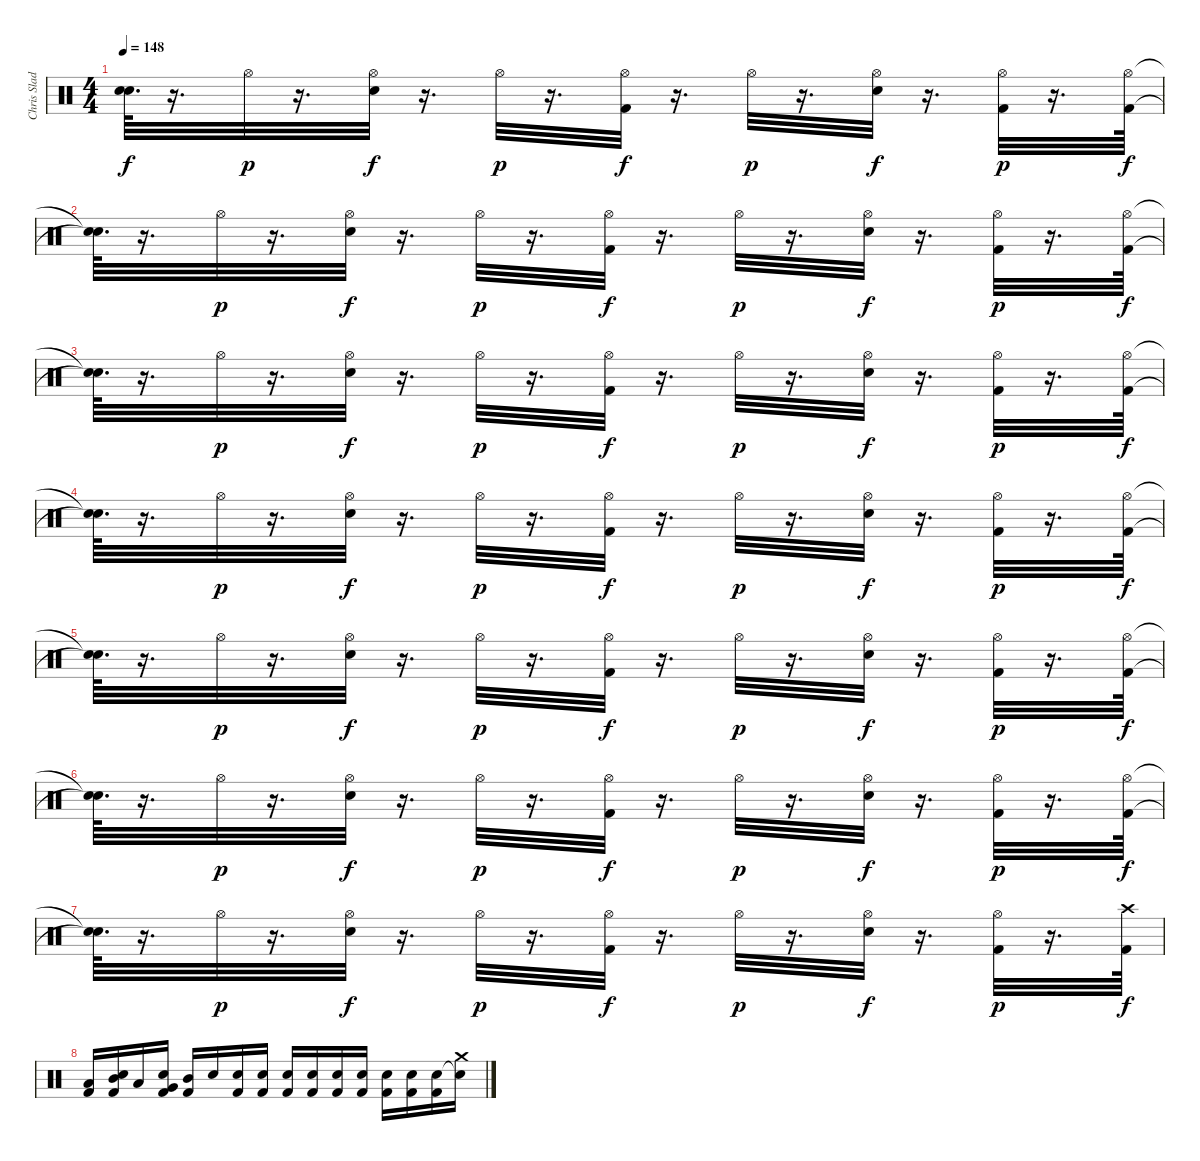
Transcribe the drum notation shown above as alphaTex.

\track ("Chris Slade" "Chris Slad") {instrument percussion}
\staff {score}
\articulation defaults
\ts (4 4)
\tempo 148
\clef neutral
\ks c
("Snare (hit)"{t} "Snare (hit)"{t}).64{d dy f} r.16{d} "Hi-Hat (open)".32{dy p} r.16{d} ("Hi-Hat (open)" "Electric Snare (hit)").32{dy f} r.16{d} "Hi-Hat (open)".32{dy p} r.16{d} ("Hi-Hat (open)" "Kick (hit) 2").32{dy f} r.16{d} "Hi-Hat (open)".32{dy p} r.16{d} ("Hi-Hat (open)" "Electric Snare (hit)").32{dy f} r.16{d} ("Hi-Hat (open)" "Kick (hit) 2").32{dy p} r.16{d} ("Hi-Hat (open)" "Kick (hit) 2").64{dy f} |
("Snare (hit)"{t} "Snare (hit)"{t}).64{d} r.16{d} "Hi-Hat (open)".32{dy p} r.16{d} ("Hi-Hat (open)" "Electric Snare (hit)").32{dy f} r.16{d} "Hi-Hat (open)".32{dy p} r.16{d} ("Hi-Hat (open)" "Kick (hit) 2").32{dy f} r.16{d} "Hi-Hat (open)".32{dy p} r.16{d} ("Hi-Hat (open)" "Electric Snare (hit)").32{dy f} r.16{d} ("Hi-Hat (open)" "Kick (hit) 2").32{dy p} r.16{d} ("Hi-Hat (open)" "Kick (hit) 2").64{dy f} |
("Snare (hit)"{t} "Snare (hit)"{t}).64{d} r.16{d} "Hi-Hat (open)".32{dy p} r.16{d} ("Hi-Hat (open)" "Electric Snare (hit)").32{dy f} r.16{d} "Hi-Hat (open)".32{dy p} r.16{d} ("Hi-Hat (open)" "Kick (hit) 2").32{dy f} r.16{d} "Hi-Hat (open)".32{dy p} r.16{d} ("Hi-Hat (open)" "Electric Snare (hit)").32{dy f} r.16{d} ("Hi-Hat (open)" "Kick (hit) 2").32{dy p} r.16{d} ("Hi-Hat (open)" "Kick (hit) 2").64{dy f} |
("Snare (hit)"{t} "Snare (hit)"{t}).64{d} r.16{d} "Hi-Hat (open)".32{dy p} r.16{d} ("Hi-Hat (open)" "Electric Snare (hit)").32{dy f} r.16{d} "Hi-Hat (open)".32{dy p} r.16{d} ("Hi-Hat (open)" "Kick (hit) 2").32{dy f} r.16{d} "Hi-Hat (open)".32{dy p} r.16{d} ("Hi-Hat (open)" "Electric Snare (hit)").32{dy f} r.16{d} ("Hi-Hat (open)" "Kick (hit) 2").32{dy p} r.16{d} ("Hi-Hat (open)" "Kick (hit) 2").64{dy f} |
("Snare (hit)"{t} "Snare (hit)"{t}).64{d} r.16{d} "Hi-Hat (open)".32{dy p} r.16{d} ("Hi-Hat (open)" "Electric Snare (hit)").32{dy f} r.16{d} "Hi-Hat (open)".32{dy p} r.16{d} ("Hi-Hat (open)" "Kick (hit) 2").32{dy f} r.16{d} "Hi-Hat (open)".32{dy p} r.16{d} ("Hi-Hat (open)" "Electric Snare (hit)").32{dy f} r.16{d} ("Hi-Hat (open)" "Kick (hit) 2").32{dy p} r.16{d} ("Hi-Hat (open)" "Kick (hit) 2").64{dy f} |
("Snare (hit)"{t} "Snare (hit)"{t}).64{d} r.16{d} "Hi-Hat (open)".32{dy p} r.16{d} ("Hi-Hat (open)" "Electric Snare (hit)").32{dy f} r.16{d} "Hi-Hat (open)".32{dy p} r.16{d} ("Hi-Hat (open)" "Kick (hit) 2").32{dy f} r.16{d} "Hi-Hat (open)".32{dy p} r.16{d} ("Hi-Hat (open)" "Electric Snare (hit)").32{dy f} r.16{d} ("Hi-Hat (open)" "Kick (hit) 2").32{dy p} r.16{d} ("Hi-Hat (open)" "Kick (hit) 2").64{dy f} |
("Snare (hit)"{t} "Snare (hit)"{t}).64{d} r.16{d} "Hi-Hat (open)".32{dy p} r.16{d} ("Hi-Hat (open)" "Electric Snare (hit)").32{dy f} r.16{d} "Hi-Hat (open)".32{dy p} r.16{d} ("Hi-Hat (open)" "Kick (hit) 2").32{dy f} r.16{d} "Hi-Hat (open)".32{dy p} r.16{d} ("Hi-Hat (open)" "Electric Snare (hit)").32{dy f} r.16{d} ("Hi-Hat (open)" "Kick (hit) 2").32{dy p} r.16{d} ("Crash high (hit)" "Kick (hit) 2").64{dy f} |
("Low Tom (hit)" "Kick (hit) 2").16 ("Electric Snare (hit)" "Mid Tom (hit)" "Kick (hit) 2").16 "Low Tom (hit)".16 ("Electric Snare (hit)" "Very Low Tom (hit)" "Kick (hit) 2").16 ("Mid Tom (hit)" "Kick (hit) 2").16 "Electric Snare (hit)".16 ("Electric Snare (hit)" "Kick (hit) 2").16 ("Electric Snare (hit)" "Kick (hit) 2").16 ("Electric Snare (hit)" "Kick (hit) 2").16 ("Electric Snare (hit)" "Kick (hit) 2").16 ("Electric Snare (hit)" "Kick (hit) 2").16 ("Electric Snare (hit)" "Kick (hit) 2").16 ("Electric Snare (hit)" "Kick (hit) 2").16 ("Electric Snare (hit)" "Kick (hit) 2").16 ("Electric Snare (hit)" "Kick (hit) 2").16 ("Snare (hit)"{t} "Crash medium (hit)").16
